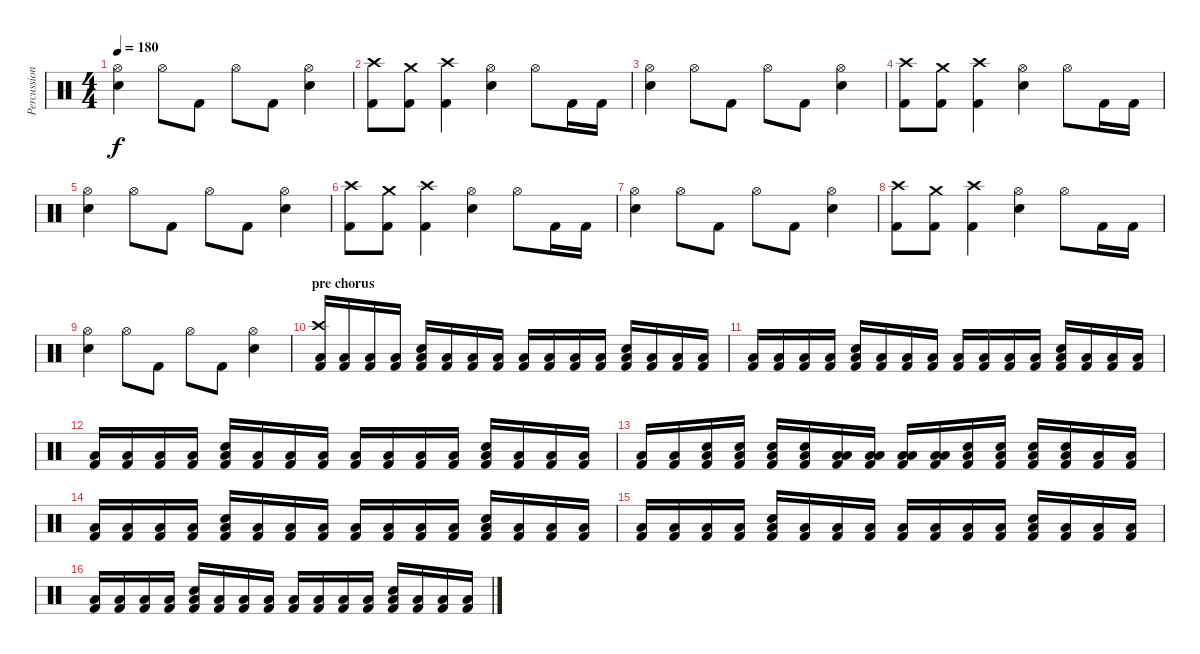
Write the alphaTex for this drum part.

\track ("Percussion" "Percussion") {instrument percussion}
\staff {score}
\articulation defaults
\ts (4 4)
\tempo 180
\clef neutral
\ks c
("Hi-Hat (open)" "Snare (hit) 2").4{dy f} "Hi-Hat (open)".8 "Kick (hit) 2".8 "Hi-Hat (open)".8 "Kick (hit) 2".8 ("Hi-Hat (open)" "Snare (hit) 2").4 |
("Crash high (hit)" "Kick (hit) 2").8 ("Crash medium (hit)" "Kick (hit) 2").8 ("Crash high (hit)" "Kick (hit) 2").4 ("Hi-Hat (open)" "Snare (hit) 2").4 "Hi-Hat (open)".8 "Kick (hit) 2".16 "Kick (hit) 2".16 |
("Hi-Hat (open)" "Snare (hit) 2").4 "Hi-Hat (open)".8 "Kick (hit) 2".8 "Hi-Hat (open)".8 "Kick (hit) 2".8 ("Hi-Hat (open)" "Snare (hit) 2").4 |
("Crash high (hit)" "Kick (hit) 2").8 ("Crash medium (hit)" "Kick (hit) 2").8 ("Crash high (hit)" "Kick (hit) 2").4 ("Hi-Hat (open)" "Snare (hit) 2").4 "Hi-Hat (open)".8 "Kick (hit) 2".16 "Kick (hit) 2".16 |
("Hi-Hat (open)" "Snare (hit) 2").4 "Hi-Hat (open)".8 "Kick (hit) 2".8 "Hi-Hat (open)".8 "Kick (hit) 2".8 ("Hi-Hat (open)" "Snare (hit) 2").4 |
("Crash high (hit)" "Kick (hit) 2").8 ("Crash medium (hit)" "Kick (hit) 2").8 ("Crash high (hit)" "Kick (hit) 2").4 ("Hi-Hat (open)" "Snare (hit) 2").4 "Hi-Hat (open)".8 "Kick (hit) 2".16 "Kick (hit) 2".16 |
("Hi-Hat (open)" "Snare (hit) 2").4 "Hi-Hat (open)".8 "Kick (hit) 2".8 "Hi-Hat (open)".8 "Kick (hit) 2".8 ("Hi-Hat (open)" "Snare (hit) 2").4 |
("Crash high (hit)" "Kick (hit) 2").8 ("Crash medium (hit)" "Kick (hit) 2").8 ("Crash high (hit)" "Kick (hit) 2").4 ("Hi-Hat (open)" "Snare (hit) 2").4 "Hi-Hat (open)".8 "Kick (hit) 2".16 "Kick (hit) 2".16 |
("Hi-Hat (open)" "Snare (hit) 2").4 "Hi-Hat (open)".8 "Kick (hit) 2".8 "Hi-Hat (open)".8 "Kick (hit) 2".8 ("Hi-Hat (open)" "Snare (hit) 2").4 |
\section ("" "pre chorus")
("Crash high (hit)" "Low Floor Tom (hit)" "Kick (hit) 2").16 ("Low Floor Tom (hit)" "Kick (hit) 2").16 ("Low Floor Tom (hit)" "Kick (hit) 2").16 ("Low Floor Tom (hit)" "Kick (hit) 2").16 ("Snare (hit) 2" "Low Floor Tom (hit)" "Kick (hit) 2").16 ("Low Floor Tom (hit)" "Kick (hit) 2").16 ("Low Floor Tom (hit)" "Kick (hit) 2").16 ("Low Floor Tom (hit)" "Kick (hit) 2").16 ("Low Floor Tom (hit)" "Kick (hit) 2").16 ("Low Floor Tom (hit)" "Kick (hit) 2").16 ("Low Floor Tom (hit)" "Kick (hit) 2").16 ("Low Floor Tom (hit)" "Kick (hit) 2").16 ("Snare (hit) 2" "Low Floor Tom (hit)" "Kick (hit) 2").16 ("Low Floor Tom (hit)" "Kick (hit) 2").16 ("Low Floor Tom (hit)" "Kick (hit) 2").16 ("Low Floor Tom (hit)" "Kick (hit) 2").16 |
("Low Floor Tom (hit)" "Kick (hit) 2").16 ("Low Floor Tom (hit)" "Kick (hit) 2").16 ("Low Floor Tom (hit)" "Kick (hit) 2").16 ("Low Floor Tom (hit)" "Kick (hit) 2").16 ("Snare (hit) 2" "Low Floor Tom (hit)" "Kick (hit) 2").16 ("Low Floor Tom (hit)" "Kick (hit) 2").16 ("Low Floor Tom (hit)" "Kick (hit) 2").16 ("Low Floor Tom (hit)" "Kick (hit) 2").16 ("Low Floor Tom (hit)" "Kick (hit) 2").16 ("Low Floor Tom (hit)" "Kick (hit) 2").16 ("Low Floor Tom (hit)" "Kick (hit) 2").16 ("Low Floor Tom (hit)" "Kick (hit) 2").16 ("Snare (hit) 2" "Low Floor Tom (hit)" "Kick (hit) 2").16 ("Low Floor Tom (hit)" "Kick (hit) 2").16 ("Low Floor Tom (hit)" "Kick (hit) 2").16 ("Low Floor Tom (hit)" "Kick (hit) 2").16 |
("Low Floor Tom (hit)" "Kick (hit) 2").16 ("Low Floor Tom (hit)" "Kick (hit) 2").16 ("Low Floor Tom (hit)" "Kick (hit) 2").16 ("Low Floor Tom (hit)" "Kick (hit) 2").16 ("Snare (hit) 2" "Low Floor Tom (hit)" "Kick (hit) 2").16 ("Low Floor Tom (hit)" "Kick (hit) 2").16 ("Low Floor Tom (hit)" "Kick (hit) 2").16 ("Low Floor Tom (hit)" "Kick (hit) 2").16 ("Low Floor Tom (hit)" "Kick (hit) 2").16 ("Low Floor Tom (hit)" "Kick (hit) 2").16 ("Low Floor Tom (hit)" "Kick (hit) 2").16 ("Low Floor Tom (hit)" "Kick (hit) 2").16 ("Snare (hit) 2" "Low Floor Tom (hit)" "Kick (hit) 2").16 ("Low Floor Tom (hit)" "Kick (hit) 2").16 ("Low Floor Tom (hit)" "Kick (hit) 2").16 ("Low Floor Tom (hit)" "Kick (hit) 2").16 |
("Low Floor Tom (hit)" "Kick (hit) 2").16 ("Low Floor Tom (hit)" "Kick (hit) 2").16 ("Snare (hit) 2" "Low Floor Tom (hit)" "Kick (hit) 2").16 ("Snare (hit) 2" "Low Floor Tom (hit)" "Kick (hit) 2").16 ("Snare (hit) 2" "Low Floor Tom (hit)" "Kick (hit) 2").16 ("Snare (hit) 2" "Low Floor Tom (hit)" "Kick (hit) 2").16 ("Low Tom (hit)" "Low Floor Tom (hit)" "Kick (hit) 2").16 ("Low Tom (hit)" "Low Floor Tom (hit)" "Kick (hit) 2").16 ("Low Tom (hit)" "Low Floor Tom (hit)" "Kick (hit) 2").16 ("Low Tom (hit)" "Low Floor Tom (hit)" "Kick (hit) 2").16 ("Snare (hit) 2" "Low Floor Tom (hit)" "Kick (hit) 2").16 ("Snare (hit) 2" "Low Floor Tom (hit)" "Kick (hit) 2").16 ("Snare (hit) 2" "Low Floor Tom (hit)" "Kick (hit) 2").16 ("Snare (hit) 2" "Low Floor Tom (hit)" "Kick (hit) 2").16 ("Low Floor Tom (hit)" "Kick (hit) 2").16 ("Low Floor Tom (hit)" "Kick (hit) 2").16 |
("Low Floor Tom (hit)" "Kick (hit) 2").16 ("Low Floor Tom (hit)" "Kick (hit) 2").16 ("Low Floor Tom (hit)" "Kick (hit) 2").16 ("Low Floor Tom (hit)" "Kick (hit) 2").16 ("Snare (hit) 2" "Low Floor Tom (hit)" "Kick (hit) 2").16 ("Low Floor Tom (hit)" "Kick (hit) 2").16 ("Low Floor Tom (hit)" "Kick (hit) 2").16 ("Low Floor Tom (hit)" "Kick (hit) 2").16 ("Low Floor Tom (hit)" "Kick (hit) 2").16 ("Low Floor Tom (hit)" "Kick (hit) 2").16 ("Low Floor Tom (hit)" "Kick (hit) 2").16 ("Low Floor Tom (hit)" "Kick (hit) 2").16 ("Snare (hit) 2" "Low Floor Tom (hit)" "Kick (hit) 2").16 ("Low Floor Tom (hit)" "Kick (hit) 2").16 ("Low Floor Tom (hit)" "Kick (hit) 2").16 ("Low Floor Tom (hit)" "Kick (hit) 2").16 |
("Low Floor Tom (hit)" "Kick (hit) 2").16 ("Low Floor Tom (hit)" "Kick (hit) 2").16 ("Low Floor Tom (hit)" "Kick (hit) 2").16 ("Low Floor Tom (hit)" "Kick (hit) 2").16 ("Snare (hit) 2" "Low Floor Tom (hit)" "Kick (hit) 2").16 ("Low Floor Tom (hit)" "Kick (hit) 2").16 ("Low Floor Tom (hit)" "Kick (hit) 2").16 ("Low Floor Tom (hit)" "Kick (hit) 2").16 ("Low Floor Tom (hit)" "Kick (hit) 2").16 ("Low Floor Tom (hit)" "Kick (hit) 2").16 ("Low Floor Tom (hit)" "Kick (hit) 2").16 ("Low Floor Tom (hit)" "Kick (hit) 2").16 ("Snare (hit) 2" "Low Floor Tom (hit)" "Kick (hit) 2").16 ("Low Floor Tom (hit)" "Kick (hit) 2").16 ("Low Floor Tom (hit)" "Kick (hit) 2").16 ("Low Floor Tom (hit)" "Kick (hit) 2").16 |
("Low Floor Tom (hit)" "Kick (hit) 2").16 ("Low Floor Tom (hit)" "Kick (hit) 2").16 ("Low Floor Tom (hit)" "Kick (hit) 2").16 ("Low Floor Tom (hit)" "Kick (hit) 2").16 ("Snare (hit) 2" "Low Floor Tom (hit)" "Kick (hit) 2").16 ("Low Floor Tom (hit)" "Kick (hit) 2").16 ("Low Floor Tom (hit)" "Kick (hit) 2").16 ("Low Floor Tom (hit)" "Kick (hit) 2").16 ("Low Floor Tom (hit)" "Kick (hit) 2").16 ("Low Floor Tom (hit)" "Kick (hit) 2").16 ("Low Floor Tom (hit)" "Kick (hit) 2").16 ("Low Floor Tom (hit)" "Kick (hit) 2").16 ("Snare (hit) 2" "Low Floor Tom (hit)" "Kick (hit) 2").16 ("Low Floor Tom (hit)" "Kick (hit) 2").16 ("Low Floor Tom (hit)" "Kick (hit) 2").16 ("Low Floor Tom (hit)" "Kick (hit) 2").16
